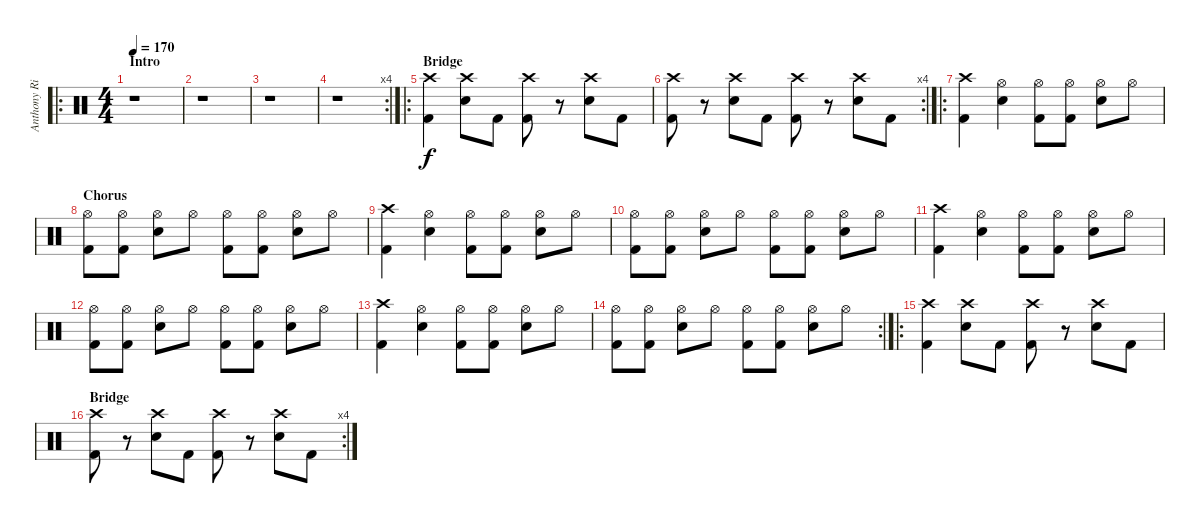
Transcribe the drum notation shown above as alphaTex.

\track ("Anthony Richards" "Anthony Ri") {instrument percussion}
\staff {score}
\articulation defaults
\ro
\ts (4 4)
\section ("" "Intro")
\tempo 170
\clef neutral
\ks c
r.1{dy f} |
r.1 |
r.1 |
\rc 4
r.1 |
\ro
\section ("" "Bridge")
("Crash high (hit)" "Kick (hit) 2").4 ("Crash high (hit)" "Snare (hit) 2").8 "Kick (hit) 2".8 ("Crash high (hit)" "Kick (hit) 2").8 r.8 ("Crash high (hit)" "Snare (hit) 2").8 "Kick (hit) 2".8 |
\rc 4
("Crash high (hit)" "Kick (hit) 2").8 r.8 ("Crash high (hit)" "Snare (hit) 2").8 "Kick (hit) 2".8 ("Crash high (hit)" "Kick (hit) 2").8 r.8 ("Crash high (hit)" "Snare (hit) 2").8 "Kick (hit) 2".8 |
\ro
("Crash high (hit)" "Kick (hit) 2").4 ("Hi-Hat (open)" "Snare (hit) 2").4 ("Hi-Hat (open)" "Kick (hit) 2").8 ("Hi-Hat (open)" "Kick (hit) 2").8 ("Hi-Hat (open)" "Snare (hit) 2").8 "Hi-Hat (open)".8 |
\section ("" "Chorus")
("Hi-Hat (open)" "Kick (hit) 2").8 ("Hi-Hat (open)" "Kick (hit) 2").8 ("Hi-Hat (open)" "Snare (hit) 2").8 "Hi-Hat (open)".8 ("Hi-Hat (open)" "Kick (hit) 2").8 ("Hi-Hat (open)" "Kick (hit) 2").8 ("Hi-Hat (open)" "Snare (hit) 2").8 "Hi-Hat (open)".8 |
("Crash high (hit)" "Kick (hit) 2").4 ("Hi-Hat (open)" "Snare (hit) 2").4 ("Hi-Hat (open)" "Kick (hit) 2").8 ("Hi-Hat (open)" "Kick (hit) 2").8 ("Hi-Hat (open)" "Snare (hit) 2").8 "Hi-Hat (open)".8 |
("Hi-Hat (open)" "Kick (hit) 2").8 ("Hi-Hat (open)" "Kick (hit) 2").8 ("Hi-Hat (open)" "Snare (hit) 2").8 "Hi-Hat (open)".8 ("Hi-Hat (open)" "Kick (hit) 2").8 ("Hi-Hat (open)" "Kick (hit) 2").8 ("Hi-Hat (open)" "Snare (hit) 2").8 "Hi-Hat (open)".8 |
("Crash high (hit)" "Kick (hit) 2").4 ("Hi-Hat (open)" "Snare (hit) 2").4 ("Hi-Hat (open)" "Kick (hit) 2").8 ("Hi-Hat (open)" "Kick (hit) 2").8 ("Hi-Hat (open)" "Snare (hit) 2").8 "Hi-Hat (open)".8 |
("Hi-Hat (open)" "Kick (hit) 2").8 ("Hi-Hat (open)" "Kick (hit) 2").8 ("Hi-Hat (open)" "Snare (hit) 2").8 "Hi-Hat (open)".8 ("Hi-Hat (open)" "Kick (hit) 2").8 ("Hi-Hat (open)" "Kick (hit) 2").8 ("Hi-Hat (open)" "Snare (hit) 2").8 "Hi-Hat (open)".8 |
("Crash high (hit)" "Kick (hit) 2").4 ("Hi-Hat (open)" "Snare (hit) 2").4 ("Hi-Hat (open)" "Kick (hit) 2").8 ("Hi-Hat (open)" "Kick (hit) 2").8 ("Hi-Hat (open)" "Snare (hit) 2").8 "Hi-Hat (open)".8 |
\rc 2
("Hi-Hat (open)" "Kick (hit) 2").8 ("Hi-Hat (open)" "Kick (hit) 2").8 ("Hi-Hat (open)" "Snare (hit) 2").8 "Hi-Hat (open)".8 ("Hi-Hat (open)" "Kick (hit) 2").8 ("Hi-Hat (open)" "Kick (hit) 2").8 ("Hi-Hat (open)" "Snare (hit) 2").8 "Hi-Hat (open)".8 |
\ro
("Crash high (hit)" "Kick (hit) 2").4 ("Crash high (hit)" "Snare (hit) 2").8 "Kick (hit) 2".8 ("Crash high (hit)" "Kick (hit) 2").8 r.8 ("Crash high (hit)" "Snare (hit) 2").8 "Kick (hit) 2".8 |
\rc 4
\section ("" "Bridge")
("Crash high (hit)" "Kick (hit) 2").8 r.8 ("Crash high (hit)" "Snare (hit) 2").8 "Kick (hit) 2".8 ("Crash high (hit)" "Kick (hit) 2").8 r.8 ("Crash high (hit)" "Snare (hit) 2").8 "Kick (hit) 2".8
